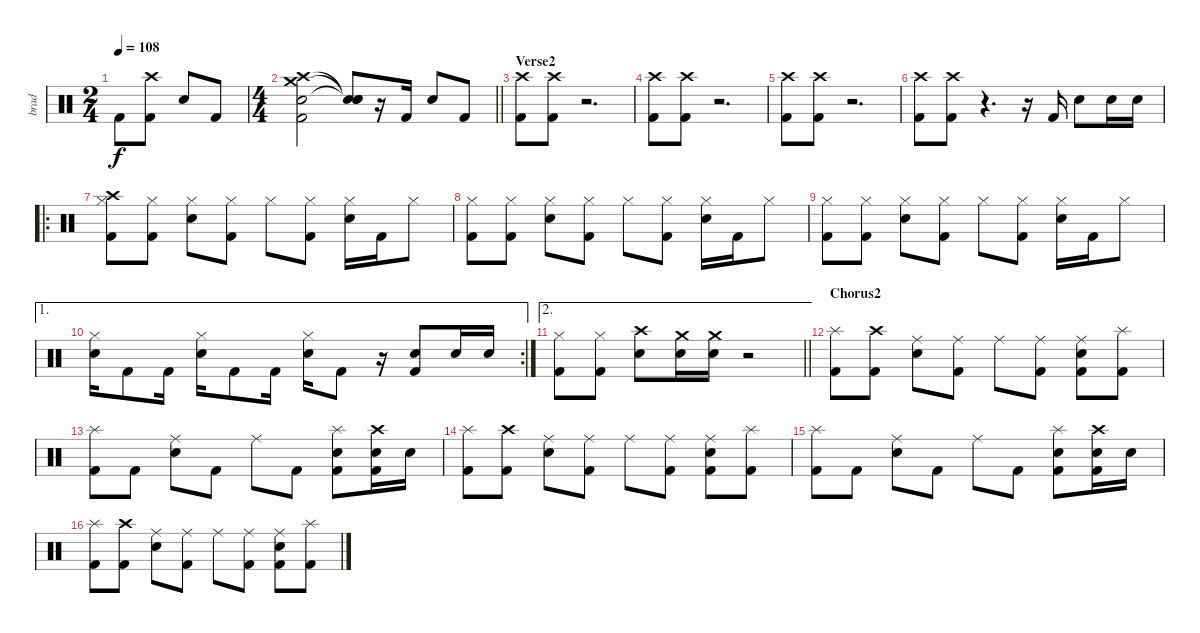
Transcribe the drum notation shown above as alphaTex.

\track ("brad" "brad") {instrument percussion}
\staff {score}
\articulation defaults
\ts (2 4)
\tempo 108
\clef neutral
\ks c "Kick (hit) 2".8{dy f}
("Crash high (hit)" "Kick (hit) 2").8 "Electric Snare (hit)".8 "Kick (hit) 2".8 |
\ts (4 4)
\barLineRight lightlight
("Crash medium (hit)" "Crash high (hit)" "Electric Snare (hit)" "Kick (hit) 2").2 ("Snare (hit)"{t} "Snare (hit)"{t} "Snare (hit)"{t}).8 r.16 "Kick (hit) 2".16 "Electric Snare (hit)".8 "Kick (hit) 2".8 |
\section ("" "Verse2")
("Crash high (hit)" "Kick (hit) 2").8 ("Crash high (hit)" "Kick (hit) 2").8 r.2{d} |
("Crash high (hit)" "Kick (hit) 2").8 ("Crash high (hit)" "Kick (hit) 2").8 r.2{d} |
("Crash high (hit)" "Kick (hit) 2").8 ("Crash high (hit)" "Kick (hit) 2").8 r.2{d} |
("Crash high (hit)" "Kick (hit) 2").8 ("Crash high (hit)" "Kick (hit) 2").8 r.4{d} r.16 "Kick (hit) 2".16 "Electric Snare (hit)".8 "Electric Snare (hit)".16 "Electric Snare (hit)".16 |
\ro
("Crash high (hit)" "Hi-Hat (closed)" "Kick (hit) 2").8 ("Hi-Hat (closed)" "Kick (hit) 2").8 ("Hi-Hat (closed)" "Electric Snare (hit)").8 ("Hi-Hat (closed)" "Kick (hit) 2").8 "Hi-Hat (closed)".8 ("Hi-Hat (closed)" "Kick (hit) 2").8 ("Hi-Hat (closed)" "Electric Snare (hit)").16 "Kick (hit) 2".16 "Hi-Hat (closed)".8 |
("Hi-Hat (closed)" "Kick (hit) 2").8 ("Hi-Hat (closed)" "Kick (hit) 2").8 ("Hi-Hat (closed)" "Electric Snare (hit)").8 ("Hi-Hat (closed)" "Kick (hit) 2").8 "Hi-Hat (closed)".8 ("Hi-Hat (closed)" "Kick (hit) 2").8 ("Hi-Hat (closed)" "Electric Snare (hit)").16 "Kick (hit) 2".16 "Hi-Hat (closed)".8 |
("Hi-Hat (closed)" "Kick (hit) 2").8 ("Hi-Hat (closed)" "Kick (hit) 2").8 ("Hi-Hat (closed)" "Electric Snare (hit)").8 ("Hi-Hat (closed)" "Kick (hit) 2").8 "Hi-Hat (closed)".8 ("Hi-Hat (closed)" "Kick (hit) 2").8 ("Hi-Hat (closed)" "Electric Snare (hit)").16 "Kick (hit) 2".16 "Hi-Hat (closed)".8 |
\ae 1
\rc 2
("Hi-Hat (closed)" "Electric Snare (hit)").16 "Kick (hit) 2".8 "Kick (hit) 2".16 ("Hi-Hat (closed)" "Electric Snare (hit)").16 "Kick (hit) 2".8 "Kick (hit) 2".16 ("Hi-Hat (closed)" "Electric Snare (hit)").16 "Kick (hit) 2".8 r.16 ("Electric Snare (hit)" "Kick (hit) 2").8 "Electric Snare (hit)".16 "Electric Snare (hit)".16 |
\ae 2
\barLineRight lightlight
("Hi-Hat (closed)" "Kick (hit) 2").8 ("Hi-Hat (closed)" "Kick (hit) 2").8 ("Crash high (hit)" "Electric Snare (hit)").8 ("Crash medium (hit)" "Electric Snare (hit)").16 ("Crash medium (hit)" "Electric Snare (hit)").16 r.2 |
\section ("" "Chorus2")
("Splash (hit)" "Kick (hit) 2").8 ("Crash high (hit)" "Kick (hit) 2").8 ("Ride (middle)" "Electric Snare (hit)").8 ("Ride (middle)" "Kick (hit) 2").8 "Ride (middle)".8 ("Ride (middle)" "Kick (hit) 2").8 ("Ride (middle)" "Electric Snare (hit)" "Kick (hit) 2").8 ("Splash (hit)" "Kick (hit) 2").8 |
("Splash (hit)" "Kick (hit) 2").8 "Kick (hit) 2".8 ("Ride (middle)" "Electric Snare (hit)").8 "Kick (hit) 2".8 "Ride (middle)".8 "Kick (hit) 2".8 ("Splash (hit)" "Electric Snare (hit)" "Kick (hit) 2").8 ("Crash high (hit)" "Electric Snare (hit)" "Kick (hit) 2").16 "Electric Snare (hit)".16 |
("Splash (hit)" "Kick (hit) 2").8 ("Crash high (hit)" "Kick (hit) 2").8 ("Ride (middle)" "Electric Snare (hit)").8 ("Ride (middle)" "Kick (hit) 2").8 "Ride (middle)".8 ("Ride (middle)" "Kick (hit) 2").8 ("Ride (middle)" "Electric Snare (hit)" "Kick (hit) 2").8 ("Splash (hit)" "Kick (hit) 2").8 |
("Splash (hit)" "Kick (hit) 2").8 "Kick (hit) 2".8 ("Ride (middle)" "Electric Snare (hit)").8 "Kick (hit) 2".8 "Ride (middle)".8 "Kick (hit) 2".8 ("Splash (hit)" "Electric Snare (hit)" "Kick (hit) 2").8 ("Crash high (hit)" "Electric Snare (hit)" "Kick (hit) 2").16 "Electric Snare (hit)".16 |
("Splash (hit)" "Kick (hit) 2").8 ("Crash high (hit)" "Kick (hit) 2").8 ("Ride (middle)" "Electric Snare (hit)").8 ("Ride (middle)" "Kick (hit) 2").8 "Ride (middle)".8 ("Ride (middle)" "Kick (hit) 2").8 ("Ride (middle)" "Electric Snare (hit)" "Kick (hit) 2").8 ("Splash (hit)" "Kick (hit) 2").8
